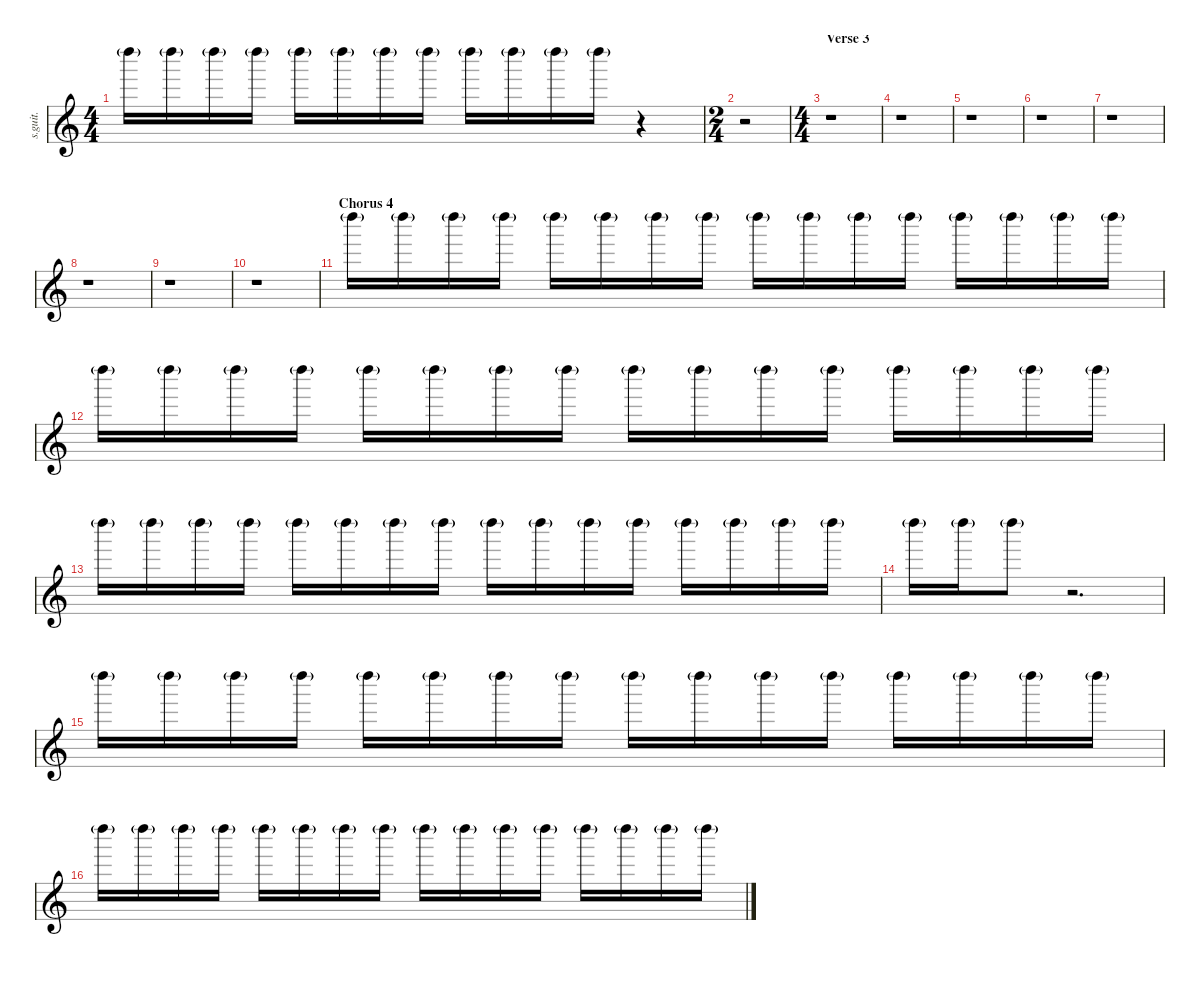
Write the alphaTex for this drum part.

\defaultSystemsLayout 4
\hideDynamics
\bracketExtendMode nobrackets
\track ("Shaker" "s.guit.") {instrument percussion}
\staff {score}
\articulation defaults
\ts (4 4)
\tempo (89 hide)
\clef g2
\ks c "Left Maraca (hit)"{g}.16{lyrics (0 "") lyrics (1 "") lyrics (2 "") lyrics (3 "") lyrics (4 "") dy mp} "Left Maraca (hit)"{g}.16{lyrics (0 "") lyrics (1 "") lyrics (2 "") lyrics (3 "") lyrics (4 "") dy p} "Left Maraca (hit)"{g}.16{lyrics (0 "") lyrics (1 "") lyrics (2 "") lyrics (3 "") lyrics (4 "")} "Left Maraca (hit)"{g}.16{lyrics (0 "") lyrics (1 "") lyrics (2 "") lyrics (3 "") lyrics (4 "")} "Left Maraca (hit)"{g}.16{lyrics (0 "") lyrics (1 "") lyrics (2 "") lyrics (3 "") lyrics (4 "") dy mp} "Left Maraca (hit)"{g}.16{lyrics (0 "") lyrics (1 "") lyrics (2 "") lyrics (3 "") lyrics (4 "") dy p} "Left Maraca (hit)"{g}.16{lyrics (0 "") lyrics (1 "") lyrics (2 "") lyrics (3 "") lyrics (4 "")} "Left Maraca (hit)"{g}.16{lyrics (0 "") lyrics (1 "") lyrics (2 "") lyrics (3 "") lyrics (4 "")} "Left Maraca (hit)"{g}.16{lyrics (0 "") lyrics (1 "") lyrics (2 "") lyrics (3 "") lyrics (4 "") dy mp} "Left Maraca (hit)"{g}.16{lyrics (0 "") lyrics (1 "") lyrics (2 "") lyrics (3 "") lyrics (4 "") dy p} "Left Maraca (hit)"{g}.16{lyrics (0 "") lyrics (1 "") lyrics (2 "") lyrics (3 "") lyrics (4 "")} "Left Maraca (hit)"{g}.16{lyrics (0 "") lyrics (1 "") lyrics (2 "") lyrics (3 "") lyrics (4 "")}
r.4 |
\ts (2 4)
\beaming (8 2 2 2 2)
\tempo (90 hide)
r.2 |
\ts (4 4)
\beaming (8 2 2 2 2)
\section ("" "Verse 3")
\tempo (89 hide)
r.1 |
\tempo (90 hide)
r.1 |
\tempo (89 hide)
r.1 |
r.1 |
\tempo (90 hide)
r.1 |
\tempo (89 hide)
r.1 |
\tempo (90 hide)
r.1 |
\tempo (87 hide)
r.1 |
\section ("" "Chorus 4")
\tempo (89 hide)
"Left Maraca (hit)"{g}.16{lyrics (0 "") lyrics (1 "") lyrics (2 "") lyrics (3 "") lyrics (4 "") dy mp} "Left Maraca (hit)"{g}.16{lyrics (0 "") lyrics (1 "") lyrics (2 "") lyrics (3 "") lyrics (4 "") dy p} "Left Maraca (hit)"{g}.16{lyrics (0 "") lyrics (1 "") lyrics (2 "") lyrics (3 "") lyrics (4 "")} "Left Maraca (hit)"{g}.16{lyrics (0 "") lyrics (1 "") lyrics (2 "") lyrics (3 "") lyrics (4 "")} "Left Maraca (hit)"{g}.16{lyrics (0 "") lyrics (1 "") lyrics (2 "") lyrics (3 "") lyrics (4 "") dy mp} "Left Maraca (hit)"{g}.16{lyrics (0 "") lyrics (1 "") lyrics (2 "") lyrics (3 "") lyrics (4 "") dy p} "Left Maraca (hit)"{g}.16{lyrics (0 "") lyrics (1 "") lyrics (2 "") lyrics (3 "") lyrics (4 "")} "Left Maraca (hit)"{g}.16{lyrics (0 "") lyrics (1 "") lyrics (2 "") lyrics (3 "") lyrics (4 "")} "Left Maraca (hit)"{g}.16{lyrics (0 "") lyrics (1 "") lyrics (2 "") lyrics (3 "") lyrics (4 "") dy mp} "Left Maraca (hit)"{g}.16{lyrics (0 "") lyrics (1 "") lyrics (2 "") lyrics (3 "") lyrics (4 "") dy p} "Left Maraca (hit)"{g}.16{lyrics (0 "") lyrics (1 "") lyrics (2 "") lyrics (3 "") lyrics (4 "")} "Left Maraca (hit)"{g}.16{lyrics (0 "") lyrics (1 "") lyrics (2 "") lyrics (3 "") lyrics (4 "")} "Left Maraca (hit)"{g}.16{lyrics (0 "") lyrics (1 "") lyrics (2 "") lyrics (3 "") lyrics (4 "") dy mp} "Left Maraca (hit)"{g}.16{lyrics (0 "") lyrics (1 "") lyrics (2 "") lyrics (3 "") lyrics (4 "") dy p} "Left Maraca (hit)"{g}.16{lyrics (0 "") lyrics (1 "") lyrics (2 "") lyrics (3 "") lyrics (4 "")} "Left Maraca (hit)"{g}.16{lyrics (0 "") lyrics (1 "") lyrics (2 "") lyrics (3 "") lyrics (4 "")} |
"Left Maraca (hit)"{g}.16{lyrics (0 "") lyrics (1 "") lyrics (2 "") lyrics (3 "") lyrics (4 "") dy mp} "Left Maraca (hit)"{g}.16{lyrics (0 "") lyrics (1 "") lyrics (2 "") lyrics (3 "") lyrics (4 "") dy p} "Left Maraca (hit)"{g}.16{lyrics (0 "") lyrics (1 "") lyrics (2 "") lyrics (3 "") lyrics (4 "")} "Left Maraca (hit)"{g}.16{lyrics (0 "") lyrics (1 "") lyrics (2 "") lyrics (3 "") lyrics (4 "")} "Left Maraca (hit)"{g}.16{lyrics (0 "") lyrics (1 "") lyrics (2 "") lyrics (3 "") lyrics (4 "") dy mp} "Left Maraca (hit)"{g}.16{lyrics (0 "") lyrics (1 "") lyrics (2 "") lyrics (3 "") lyrics (4 "") dy p} "Left Maraca (hit)"{g}.16{lyrics (0 "") lyrics (1 "") lyrics (2 "") lyrics (3 "") lyrics (4 "")} "Left Maraca (hit)"{g}.16{lyrics (0 "") lyrics (1 "") lyrics (2 "") lyrics (3 "") lyrics (4 "")} "Left Maraca (hit)"{g}.16{lyrics (0 "") lyrics (1 "") lyrics (2 "") lyrics (3 "") lyrics (4 "") dy mp} "Left Maraca (hit)"{g}.16{lyrics (0 "") lyrics (1 "") lyrics (2 "") lyrics (3 "") lyrics (4 "") dy p} "Left Maraca (hit)"{g}.16{lyrics (0 "") lyrics (1 "") lyrics (2 "") lyrics (3 "") lyrics (4 "")} "Left Maraca (hit)"{g}.16{lyrics (0 "") lyrics (1 "") lyrics (2 "") lyrics (3 "") lyrics (4 "")} "Left Maraca (hit)"{g}.16{lyrics (0 "") lyrics (1 "") lyrics (2 "") lyrics (3 "") lyrics (4 "") dy mp} "Left Maraca (hit)"{g}.16{lyrics (0 "") lyrics (1 "") lyrics (2 "") lyrics (3 "") lyrics (4 "") dy p} "Left Maraca (hit)"{g}.16{lyrics (0 "") lyrics (1 "") lyrics (2 "") lyrics (3 "") lyrics (4 "")} "Left Maraca (hit)"{g}.16{lyrics (0 "") lyrics (1 "") lyrics (2 "") lyrics (3 "") lyrics (4 "")} |
"Left Maraca (hit)"{g}.16{lyrics (0 "") lyrics (1 "") lyrics (2 "") lyrics (3 "") lyrics (4 "") dy mp} "Left Maraca (hit)"{g}.16{lyrics (0 "") lyrics (1 "") lyrics (2 "") lyrics (3 "") lyrics (4 "") dy p} "Left Maraca (hit)"{g}.16{lyrics (0 "") lyrics (1 "") lyrics (2 "") lyrics (3 "") lyrics (4 "")} "Left Maraca (hit)"{g}.16{lyrics (0 "") lyrics (1 "") lyrics (2 "") lyrics (3 "") lyrics (4 "")} "Left Maraca (hit)"{g}.16{lyrics (0 "") lyrics (1 "") lyrics (2 "") lyrics (3 "") lyrics (4 "") dy mp} "Left Maraca (hit)"{g}.16{lyrics (0 "") lyrics (1 "") lyrics (2 "") lyrics (3 "") lyrics (4 "") dy p} "Left Maraca (hit)"{g}.16{lyrics (0 "") lyrics (1 "") lyrics (2 "") lyrics (3 "") lyrics (4 "")} "Left Maraca (hit)"{g}.16{lyrics (0 "") lyrics (1 "") lyrics (2 "") lyrics (3 "") lyrics (4 "")} "Left Maraca (hit)"{g}.16{lyrics (0 "") lyrics (1 "") lyrics (2 "") lyrics (3 "") lyrics (4 "") dy mp} "Left Maraca (hit)"{g}.16{lyrics (0 "") lyrics (1 "") lyrics (2 "") lyrics (3 "") lyrics (4 "") dy p} "Left Maraca (hit)"{g}.16{lyrics (0 "") lyrics (1 "") lyrics (2 "") lyrics (3 "") lyrics (4 "")} "Left Maraca (hit)"{g}.16{lyrics (0 "") lyrics (1 "") lyrics (2 "") lyrics (3 "") lyrics (4 "")} "Left Maraca (hit)"{g}.16{lyrics (0 "") lyrics (1 "") lyrics (2 "") lyrics (3 "") lyrics (4 "") dy mp} "Left Maraca (hit)"{g}.16{lyrics (0 "") lyrics (1 "") lyrics (2 "") lyrics (3 "") lyrics (4 "") dy p} "Left Maraca (hit)"{g}.16{lyrics (0 "") lyrics (1 "") lyrics (2 "") lyrics (3 "") lyrics (4 "")} "Left Maraca (hit)"{g}.16{lyrics (0 "") lyrics (1 "") lyrics (2 "") lyrics (3 "") lyrics (4 "")} |
\tempo (90 hide)
"Left Maraca (hit)"{g}.16{lyrics (0 "") lyrics (1 "") lyrics (2 "") lyrics (3 "") lyrics (4 "") dy mp} "Left Maraca (hit)"{g}.16{lyrics (0 "") lyrics (1 "") lyrics (2 "") lyrics (3 "") lyrics (4 "") dy p} "Left Maraca (hit)"{g}.8{lyrics (0 "") lyrics (1 "") lyrics (2 "") lyrics (3 "") lyrics (4 "")} r.2{d} |
"Left Maraca (hit)"{g}.16{lyrics (0 "") lyrics (1 "") lyrics (2 "") lyrics (3 "") lyrics (4 "") dy mp} "Left Maraca (hit)"{g}.16{lyrics (0 "") lyrics (1 "") lyrics (2 "") lyrics (3 "") lyrics (4 "") dy p} "Left Maraca (hit)"{g}.16{lyrics (0 "") lyrics (1 "") lyrics (2 "") lyrics (3 "") lyrics (4 "")} "Left Maraca (hit)"{g}.16{lyrics (0 "") lyrics (1 "") lyrics (2 "") lyrics (3 "") lyrics (4 "")} "Left Maraca (hit)"{g}.16{lyrics (0 "") lyrics (1 "") lyrics (2 "") lyrics (3 "") lyrics (4 "") dy mp} "Left Maraca (hit)"{g}.16{lyrics (0 "") lyrics (1 "") lyrics (2 "") lyrics (3 "") lyrics (4 "") dy p} "Left Maraca (hit)"{g}.16{lyrics (0 "") lyrics (1 "") lyrics (2 "") lyrics (3 "") lyrics (4 "")} "Left Maraca (hit)"{g}.16{lyrics (0 "") lyrics (1 "") lyrics (2 "") lyrics (3 "") lyrics (4 "")} "Left Maraca (hit)"{g}.16{lyrics (0 "") lyrics (1 "") lyrics (2 "") lyrics (3 "") lyrics (4 "") dy mp} "Left Maraca (hit)"{g}.16{lyrics (0 "") lyrics (1 "") lyrics (2 "") lyrics (3 "") lyrics (4 "") dy p} "Left Maraca (hit)"{g}.16{lyrics (0 "") lyrics (1 "") lyrics (2 "") lyrics (3 "") lyrics (4 "")} "Left Maraca (hit)"{g}.16{lyrics (0 "") lyrics (1 "") lyrics (2 "") lyrics (3 "") lyrics (4 "")} "Left Maraca (hit)"{g}.16{lyrics (0 "") lyrics (1 "") lyrics (2 "") lyrics (3 "") lyrics (4 "") dy mp} "Left Maraca (hit)"{g}.16{lyrics (0 "") lyrics (1 "") lyrics (2 "") lyrics (3 "") lyrics (4 "") dy p} "Left Maraca (hit)"{g}.16{lyrics (0 "") lyrics (1 "") lyrics (2 "") lyrics (3 "") lyrics (4 "")} "Left Maraca (hit)"{g}.16{lyrics (0 "") lyrics (1 "") lyrics (2 "") lyrics (3 "") lyrics (4 "")} |
\tempo (89 hide)
"Left Maraca (hit)"{g}.16{lyrics (0 "") lyrics (1 "") lyrics (2 "") lyrics (3 "") lyrics (4 "") dy mp} "Left Maraca (hit)"{g}.16{lyrics (0 "") lyrics (1 "") lyrics (2 "") lyrics (3 "") lyrics (4 "") dy p} "Left Maraca (hit)"{g}.16{lyrics (0 "") lyrics (1 "") lyrics (2 "") lyrics (3 "") lyrics (4 "")} "Left Maraca (hit)"{g}.16{lyrics (0 "") lyrics (1 "") lyrics (2 "") lyrics (3 "") lyrics (4 "")} "Left Maraca (hit)"{g}.16{lyrics (0 "") lyrics (1 "") lyrics (2 "") lyrics (3 "") lyrics (4 "") dy mp} "Left Maraca (hit)"{g}.16{lyrics (0 "") lyrics (1 "") lyrics (2 "") lyrics (3 "") lyrics (4 "") dy p} "Left Maraca (hit)"{g}.16{lyrics (0 "") lyrics (1 "") lyrics (2 "") lyrics (3 "") lyrics (4 "")} "Left Maraca (hit)"{g}.16{lyrics (0 "") lyrics (1 "") lyrics (2 "") lyrics (3 "") lyrics (4 "")} "Left Maraca (hit)"{g}.16{lyrics (0 "") lyrics (1 "") lyrics (2 "") lyrics (3 "") lyrics (4 "") dy mp} "Left Maraca (hit)"{g}.16{lyrics (0 "") lyrics (1 "") lyrics (2 "") lyrics (3 "") lyrics (4 "") dy p} "Left Maraca (hit)"{g}.16{lyrics (0 "") lyrics (1 "") lyrics (2 "") lyrics (3 "") lyrics (4 "")} "Left Maraca (hit)"{g}.16{lyrics (0 "") lyrics (1 "") lyrics (2 "") lyrics (3 "") lyrics (4 "")} "Left Maraca (hit)"{g}.16{lyrics (0 "") lyrics (1 "") lyrics (2 "") lyrics (3 "") lyrics (4 "") dy mp} "Left Maraca (hit)"{g}.16{lyrics (0 "") lyrics (1 "") lyrics (2 "") lyrics (3 "") lyrics (4 "") dy p} "Left Maraca (hit)"{g}.16{lyrics (0 "") lyrics (1 "") lyrics (2 "") lyrics (3 "") lyrics (4 "")} "Left Maraca (hit)"{g}.16{lyrics (0 "") lyrics (1 "") lyrics (2 "") lyrics (3 "") lyrics (4 "")}
